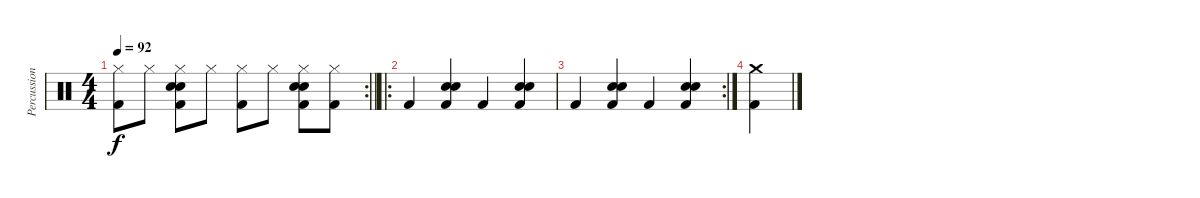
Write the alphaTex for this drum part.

\track ("Percussion" "Percussion") {instrument percussion}
\staff {score}
\articulation defaults
\rc 2
\ts (4 4)
\tempo 92
\clef neutral
\barLineRight lightlight
\ks c
("Hi-Hat (closed)" "Kick (hit) 2").8{dy f} "Hi-Hat (closed)".8 ("Hi-Hat (closed)" "Electric Snare (hit)" "Hand Clap (hit)" "Kick (hit) 2").8 "Hi-Hat (closed)".8 ("Hi-Hat (closed)" "Kick (hit) 2").8 "Hi-Hat (closed)".8 ("Hi-Hat (closed)" "Electric Snare (hit)" "Hand Clap (hit)" "Kick (hit) 2").8 ("Hi-Hat (closed)" "Kick (hit) 2").8 |
\ro "Kick (hit) 2".4
("Electric Snare (hit)" "Hand Clap (hit)" "Kick (hit) 2").4 "Kick (hit) 2".4 ("Electric Snare (hit)" "Hand Clap (hit)" "Kick (hit) 2").4 |
\rc 2 "Kick (hit) 2".4
("Electric Snare (hit)" "Hand Clap (hit)" "Kick (hit) 2").4 "Kick (hit) 2".4 ("Electric Snare (hit)" "Hand Clap (hit)" "Kick (hit) 2").4 |
("Crash medium (hit)" "Kick (hit) 2").4
